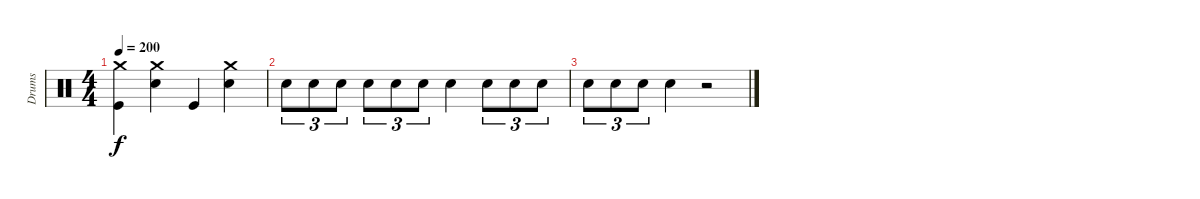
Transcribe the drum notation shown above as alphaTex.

\track ("Drums" "Drums") {instrument percussion}
\staff {score}
\articulation defaults
\ts (4 4)
\tempo 200
\clef neutral
\ks c
("Kick (hit)" "Crash medium (hit)").4{dy f} ("Snare (hit) 2" "Crash medium (hit)").4 "Kick (hit)".4 ("Snare (hit) 2" "Crash medium (hit)").4 |
"Snare (hit) 2".8{tu (3 2)} "Snare (hit) 2".8{tu (3 2)} "Snare (hit) 2".8{tu (3 2)} "Snare (hit) 2".8{tu (3 2)} "Snare (hit) 2".8{tu (3 2)} "Snare (hit) 2".8{tu (3 2)} "Snare (hit) 2".4 "Snare (hit) 2".8{tu (3 2)} "Snare (hit) 2".8{tu (3 2)} "Snare (hit) 2".8{tu (3 2)} |
"Snare (hit) 2".8{tu (3 2)} "Snare (hit) 2".8{tu (3 2)} "Snare (hit) 2".8{tu (3 2)} "Snare (hit) 2".4 r.2
